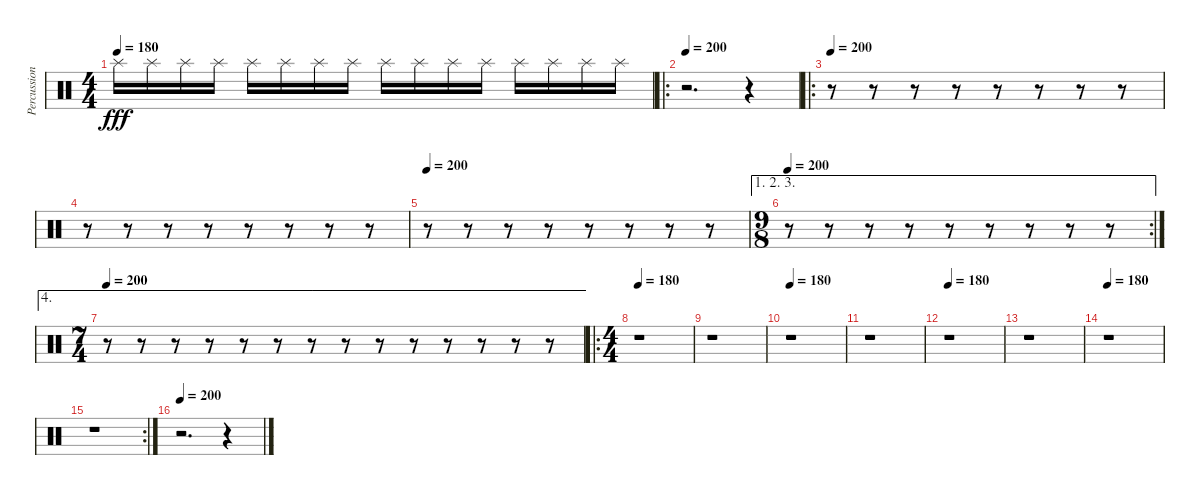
\track ("Percussion 3" "Percussion") {instrument percussion}
\staff {score}
\articulation defaults
\ts (4 4)
\tempo 180
\clef neutral
\ks c "Splash (hit)".16{dy fff} "Splash (hit)".16 "Splash (hit)".16 "Splash (hit)".16 "Splash (hit)".16 "Splash (hit)".16 "Splash (hit)".16 "Splash (hit)".16 "Splash (hit)".16 "Splash (hit)".16 "Splash (hit)".16 "Splash (hit)".16 "Splash (hit)".16 "Splash (hit)".16 "Splash (hit)".16 "Splash (hit)".16
|
\ro
\tempo 200
r.2{d} r.4 |
\ro
\tempo 200
r.8 r.8 r.8 r.8 r.8 r.8 r.8 r.8 |
r.8 r.8 r.8 r.8 r.8 r.8 r.8 r.8 |
\tempo 200
r.8 r.8 r.8 r.8 r.8 r.8 r.8 r.8 |
\ae (1 2 3)
\rc 2
\ts (9 8)
\tempo 200
r.8 r.8 r.8 r.8 r.8 r.8 r.8 r.8 r.8 |
\ae 4
\ts (7 4)
\tempo 200
r.8 r.8 r.8 r.8 r.8 r.8 r.8 r.8 r.8 r.8 r.8 r.8 r.8 r.8 |
\ro
\ts (4 4)
\tempo 180
r.1 |
r.1 |
\tempo 180
r.1 |
r.1 |
\tempo 180
r.1 |
r.1 |
\tempo 180
r.1 |
\rc 2
r.1 |
\tempo 200
r.2{d} r.4
